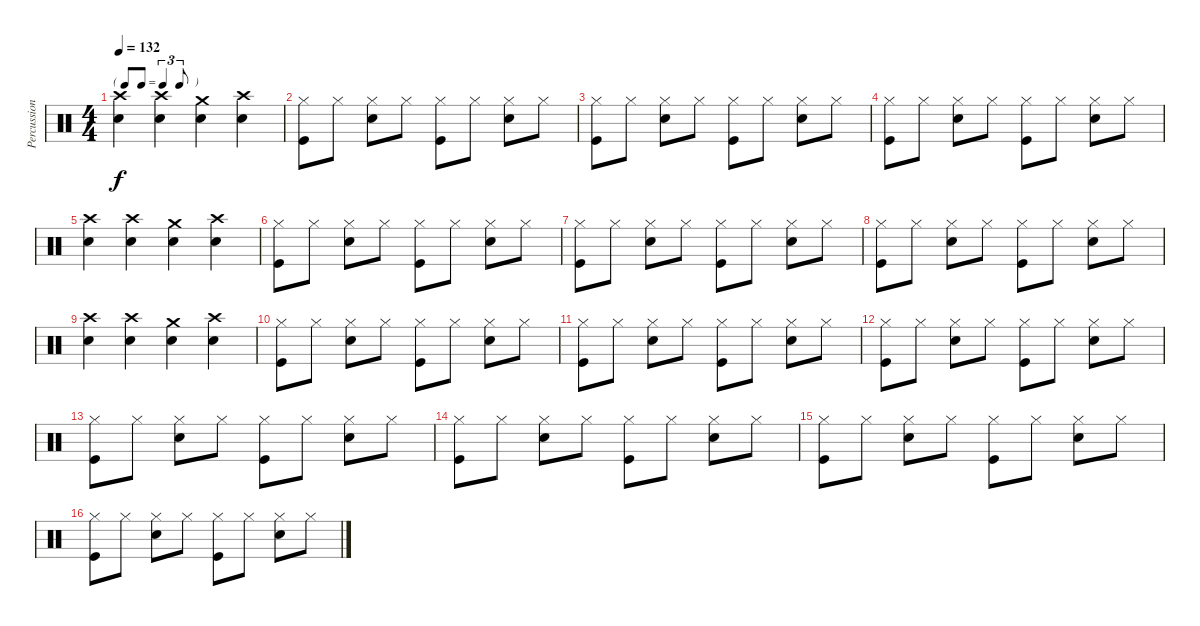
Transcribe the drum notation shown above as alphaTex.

\track ("Percussion" "Percussion") {instrument percussion}
\staff {score}
\articulation defaults
\ts (4 4)
\tf triplet8th
\tempo 132
\clef neutral
\ks c
("Crash high (hit)" "Snare (hit) 2").4{dy f} ("Crash high (hit)" "Snare (hit) 2").4 ("Crash medium (hit)" "Snare (hit) 2").4 ("Crash high (hit)" "Snare (hit) 2").4 |
("Hi-Hat (closed)" "Kick (hit)").8 "Hi-Hat (closed)".8 ("Hi-Hat (closed)" "Snare (hit) 2").8 "Hi-Hat (closed)".8 ("Hi-Hat (closed)" "Kick (hit)").8 "Hi-Hat (closed)".8 ("Hi-Hat (closed)" "Snare (hit) 2").8 "Hi-Hat (closed)".8 |
("Hi-Hat (closed)" "Kick (hit)").8 "Hi-Hat (closed)".8 ("Hi-Hat (closed)" "Snare (hit) 2").8 "Hi-Hat (closed)".8 ("Hi-Hat (closed)" "Kick (hit)").8 "Hi-Hat (closed)".8 ("Hi-Hat (closed)" "Snare (hit) 2").8 "Hi-Hat (closed)".8 |
("Hi-Hat (closed)" "Kick (hit)").8 "Hi-Hat (closed)".8 ("Hi-Hat (closed)" "Snare (hit) 2").8 "Hi-Hat (closed)".8 ("Hi-Hat (closed)" "Kick (hit)").8 "Hi-Hat (closed)".8 ("Hi-Hat (closed)" "Snare (hit) 2").8 "Hi-Hat (closed)".8 |
("Crash high (hit)" "Snare (hit) 2").4 ("Crash high (hit)" "Snare (hit) 2").4 ("Crash medium (hit)" "Snare (hit) 2").4 ("Crash high (hit)" "Snare (hit) 2").4 |
("Hi-Hat (closed)" "Kick (hit)").8 "Hi-Hat (closed)".8 ("Hi-Hat (closed)" "Snare (hit) 2").8 "Hi-Hat (closed)".8 ("Hi-Hat (closed)" "Kick (hit)").8 "Hi-Hat (closed)".8 ("Hi-Hat (closed)" "Snare (hit) 2").8 "Hi-Hat (closed)".8 |
("Hi-Hat (closed)" "Kick (hit)").8 "Hi-Hat (closed)".8 ("Hi-Hat (closed)" "Snare (hit) 2").8 "Hi-Hat (closed)".8 ("Hi-Hat (closed)" "Kick (hit)").8 "Hi-Hat (closed)".8 ("Hi-Hat (closed)" "Snare (hit) 2").8 "Hi-Hat (closed)".8 |
("Hi-Hat (closed)" "Kick (hit)").8 "Hi-Hat (closed)".8 ("Hi-Hat (closed)" "Snare (hit) 2").8 "Hi-Hat (closed)".8 ("Hi-Hat (closed)" "Kick (hit)").8 "Hi-Hat (closed)".8 ("Hi-Hat (closed)" "Snare (hit) 2").8 "Hi-Hat (closed)".8 |
("Crash high (hit)" "Snare (hit) 2").4 ("Crash high (hit)" "Snare (hit) 2").4 ("Crash medium (hit)" "Snare (hit) 2").4 ("Crash high (hit)" "Snare (hit) 2").4 |
("Hi-Hat (closed)" "Kick (hit)").8 "Hi-Hat (closed)".8 ("Hi-Hat (closed)" "Snare (hit) 2").8 "Hi-Hat (closed)".8 ("Hi-Hat (closed)" "Kick (hit)").8 "Hi-Hat (closed)".8 ("Hi-Hat (closed)" "Snare (hit) 2").8 "Hi-Hat (closed)".8 |
("Hi-Hat (closed)" "Kick (hit)").8 "Hi-Hat (closed)".8 ("Hi-Hat (closed)" "Snare (hit) 2").8 "Hi-Hat (closed)".8 ("Hi-Hat (closed)" "Kick (hit)").8 "Hi-Hat (closed)".8 ("Hi-Hat (closed)" "Snare (hit) 2").8 "Hi-Hat (closed)".8 |
("Hi-Hat (closed)" "Kick (hit)").8 "Hi-Hat (closed)".8 ("Hi-Hat (closed)" "Snare (hit) 2").8 "Hi-Hat (closed)".8 ("Hi-Hat (closed)" "Kick (hit)").8 "Hi-Hat (closed)".8 ("Hi-Hat (closed)" "Snare (hit) 2").8 "Hi-Hat (closed)".8 |
("Hi-Hat (closed)" "Kick (hit)").8 "Hi-Hat (closed)".8 ("Hi-Hat (closed)" "Snare (hit) 2").8 "Hi-Hat (closed)".8 ("Hi-Hat (closed)" "Kick (hit)").8 "Hi-Hat (closed)".8 ("Hi-Hat (closed)" "Snare (hit) 2").8 "Hi-Hat (closed)".8 |
("Hi-Hat (closed)" "Kick (hit)").8 "Hi-Hat (closed)".8 ("Hi-Hat (closed)" "Snare (hit) 2").8 "Hi-Hat (closed)".8 ("Hi-Hat (closed)" "Kick (hit)").8 "Hi-Hat (closed)".8 ("Hi-Hat (closed)" "Snare (hit) 2").8 "Hi-Hat (closed)".8 |
("Hi-Hat (closed)" "Kick (hit)").8 "Hi-Hat (closed)".8 ("Hi-Hat (closed)" "Snare (hit) 2").8 "Hi-Hat (closed)".8 ("Hi-Hat (closed)" "Kick (hit)").8 "Hi-Hat (closed)".8 ("Hi-Hat (closed)" "Snare (hit) 2").8 "Hi-Hat (closed)".8 |
("Hi-Hat (closed)" "Kick (hit)").8 "Hi-Hat (closed)".8 ("Hi-Hat (closed)" "Snare (hit) 2").8 "Hi-Hat (closed)".8 ("Hi-Hat (closed)" "Kick (hit)").8 "Hi-Hat (closed)".8 ("Hi-Hat (closed)" "Snare (hit) 2").8 "Hi-Hat (closed)".8
